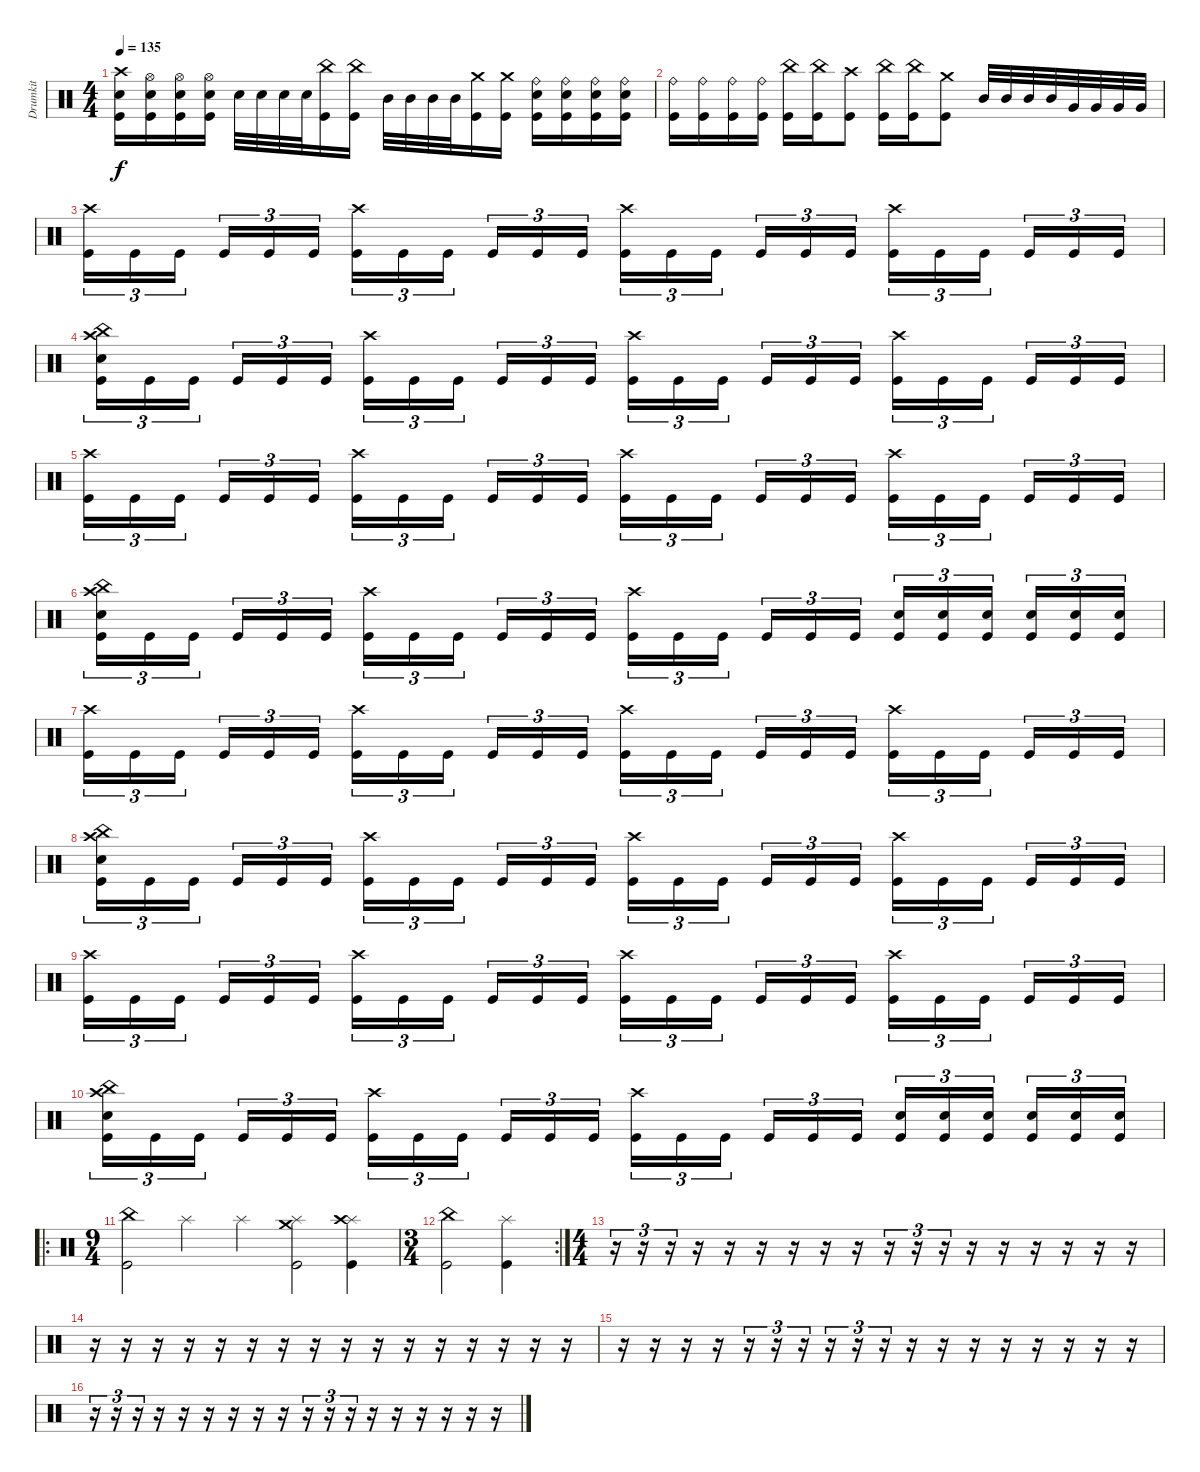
\track ("Drumkit" "Drumkit") {mute instrument percussion}
\staff {score}
\articulation defaults
\ts (4 4)
\tempo 135
\clef neutral
\ks c
("Kick (hit)" "Snare (hit) 2" "Crash high (hit)").16{dy f} ("Kick (hit)" "Snare (hit) 2" "Hi-Hat (open)").16 ("Kick (hit)" "Snare (hit) 2" "Hi-Hat (open)").16 ("Kick (hit)" "Snare (hit) 2" "Hi-Hat (open)").16 "Snare (hit) 2".32 "Snare (hit) 2".32 "Snare (hit) 2".32 "Snare (hit) 2".32 ("Kick (hit)" "China (hit)").16 ("Kick (hit)" "China (hit)").16 "Mid Tom (hit)".32 "Mid Tom (hit)".32 "Mid Tom (hit)".32 "Mid Tom (hit)".32 ("Kick (hit)" "Crash medium (hit)").16 ("Kick (hit)" "Crash medium (hit)").16 ("Kick (hit)" "Snare (hit) 2" "Ride (bell)").16 ("Kick (hit)" "Snare (hit) 2" "Ride (bell)").16 ("Kick (hit)" "Snare (hit) 2" "Ride (bell)").16 ("Kick (hit)" "Snare (hit) 2" "Ride (bell)").16 |
("Kick (hit)" "Ride (bell)").16 ("Kick (hit)" "Ride (bell)").16 ("Kick (hit)" "Ride (bell)").16 ("Kick (hit)" "Ride (bell)").16 ("Kick (hit)" "China (hit)").16 ("Kick (hit)" "China (hit)").16 ("Kick (hit)" "Crash high (hit)").8 ("Kick (hit)" "China (hit)").16 ("Kick (hit)" "China (hit)").16 ("Kick (hit)" "Crash medium (hit)").8 "Mid Tom (hit)".32 "Mid Tom (hit)".32 "Mid Tom (hit)".32 "Mid Tom (hit)".32 "Very Low Tom (hit)".32 "Very Low Tom (hit)".32 "Very Low Tom (hit)".32 "Very Low Tom (hit)".32 |
("Kick (hit)" "Crash high (hit)").16{tu (3 2)} "Kick (hit)".16{tu (3 2)} "Kick (hit)".16{tu (3 2) beam splitsecondary} "Kick (hit)".16{tu (3 2)} "Kick (hit)".16{tu (3 2)} "Kick (hit)".16{tu (3 2)} ("Kick (hit)" "Crash high (hit)").16{tu (3 2)} "Kick (hit)".16{tu (3 2)} "Kick (hit)".16{tu (3 2) beam splitsecondary} "Kick (hit)".16{tu (3 2)} "Kick (hit)".16{tu (3 2)} "Kick (hit)".16{tu (3 2)} ("Kick (hit)" "Crash high (hit)").16{tu (3 2)} "Kick (hit)".16{tu (3 2)} "Kick (hit)".16{tu (3 2) beam splitsecondary} "Kick (hit)".16{tu (3 2)} "Kick (hit)".16{tu (3 2)} "Kick (hit)".16{tu (3 2)} ("Kick (hit)" "Crash high (hit)").16{tu (3 2)} "Kick (hit)".16{tu (3 2)} "Kick (hit)".16{tu (3 2) beam splitsecondary} "Kick (hit)".16{tu (3 2)} "Kick (hit)".16{tu (3 2)} "Kick (hit)".16{tu (3 2)} |
("Kick (hit)" "Crash high (hit)" "Snare (hit) 2" "China (hit)").16{tu (3 2)} "Kick (hit)".16{tu (3 2)} "Kick (hit)".16{tu (3 2) beam splitsecondary} "Kick (hit)".16{tu (3 2)} "Kick (hit)".16{tu (3 2)} "Kick (hit)".16{tu (3 2)} ("Kick (hit)" "Crash high (hit)").16{tu (3 2)} "Kick (hit)".16{tu (3 2)} "Kick (hit)".16{tu (3 2) beam splitsecondary} "Kick (hit)".16{tu (3 2)} "Kick (hit)".16{tu (3 2)} "Kick (hit)".16{tu (3 2)} ("Kick (hit)" "Crash high (hit)").16{tu (3 2)} "Kick (hit)".16{tu (3 2)} "Kick (hit)".16{tu (3 2) beam splitsecondary} "Kick (hit)".16{tu (3 2)} "Kick (hit)".16{tu (3 2)} "Kick (hit)".16{tu (3 2)} ("Kick (hit)" "Crash high (hit)").16{tu (3 2)} "Kick (hit)".16{tu (3 2)} "Kick (hit)".16{tu (3 2) beam splitsecondary} "Kick (hit)".16{tu (3 2)} "Kick (hit)".16{tu (3 2)} "Kick (hit)".16{tu (3 2)} |
("Kick (hit)" "Crash high (hit)").16{tu (3 2)} "Kick (hit)".16{tu (3 2)} "Kick (hit)".16{tu (3 2) beam splitsecondary} "Kick (hit)".16{tu (3 2)} "Kick (hit)".16{tu (3 2)} "Kick (hit)".16{tu (3 2)} ("Kick (hit)" "Crash high (hit)").16{tu (3 2)} "Kick (hit)".16{tu (3 2)} "Kick (hit)".16{tu (3 2) beam splitsecondary} "Kick (hit)".16{tu (3 2)} "Kick (hit)".16{tu (3 2)} "Kick (hit)".16{tu (3 2)} ("Kick (hit)" "Crash high (hit)").16{tu (3 2)} "Kick (hit)".16{tu (3 2)} "Kick (hit)".16{tu (3 2) beam splitsecondary} "Kick (hit)".16{tu (3 2)} "Kick (hit)".16{tu (3 2)} "Kick (hit)".16{tu (3 2)} ("Kick (hit)" "Crash high (hit)").16{tu (3 2)} "Kick (hit)".16{tu (3 2)} "Kick (hit)".16{tu (3 2) beam splitsecondary} "Kick (hit)".16{tu (3 2)} "Kick (hit)".16{tu (3 2)} "Kick (hit)".16{tu (3 2)} |
("Kick (hit)" "Crash high (hit)" "Snare (hit) 2" "China (hit)").16{tu (3 2)} "Kick (hit)".16{tu (3 2)} "Kick (hit)".16{tu (3 2) beam splitsecondary} "Kick (hit)".16{tu (3 2)} "Kick (hit)".16{tu (3 2)} "Kick (hit)".16{tu (3 2)} ("Kick (hit)" "Crash high (hit)").16{tu (3 2)} "Kick (hit)".16{tu (3 2)} "Kick (hit)".16{tu (3 2) beam splitsecondary} "Kick (hit)".16{tu (3 2)} "Kick (hit)".16{tu (3 2)} "Kick (hit)".16{tu (3 2)} ("Kick (hit)" "Crash high (hit)").16{tu (3 2)} "Kick (hit)".16{tu (3 2)} "Kick (hit)".16{tu (3 2) beam splitsecondary} "Kick (hit)".16{tu (3 2)} "Kick (hit)".16{tu (3 2)} "Kick (hit)".16{tu (3 2)} ("Kick (hit)" "Snare (hit) 2").16{tu (3 2)} ("Kick (hit)" "Snare (hit) 2").16{tu (3 2)} ("Kick (hit)" "Snare (hit) 2").16{tu (3 2) beam splitsecondary} ("Kick (hit)" "Snare (hit) 2").16{tu (3 2)} ("Kick (hit)" "Snare (hit) 2").16{tu (3 2)} ("Kick (hit)" "Snare (hit) 2").16{tu (3 2)} |
("Kick (hit)" "Crash high (hit)").16{tu (3 2)} "Kick (hit)".16{tu (3 2)} "Kick (hit)".16{tu (3 2) beam splitsecondary} "Kick (hit)".16{tu (3 2)} "Kick (hit)".16{tu (3 2)} "Kick (hit)".16{tu (3 2)} ("Kick (hit)" "Crash high (hit)").16{tu (3 2)} "Kick (hit)".16{tu (3 2)} "Kick (hit)".16{tu (3 2) beam splitsecondary} "Kick (hit)".16{tu (3 2)} "Kick (hit)".16{tu (3 2)} "Kick (hit)".16{tu (3 2)} ("Kick (hit)" "Crash high (hit)").16{tu (3 2)} "Kick (hit)".16{tu (3 2)} "Kick (hit)".16{tu (3 2) beam splitsecondary} "Kick (hit)".16{tu (3 2)} "Kick (hit)".16{tu (3 2)} "Kick (hit)".16{tu (3 2)} ("Kick (hit)" "Crash high (hit)").16{tu (3 2)} "Kick (hit)".16{tu (3 2)} "Kick (hit)".16{tu (3 2) beam splitsecondary} "Kick (hit)".16{tu (3 2)} "Kick (hit)".16{tu (3 2)} "Kick (hit)".16{tu (3 2)} |
("Kick (hit)" "Crash high (hit)" "Snare (hit) 2" "China (hit)").16{tu (3 2)} "Kick (hit)".16{tu (3 2)} "Kick (hit)".16{tu (3 2) beam splitsecondary} "Kick (hit)".16{tu (3 2)} "Kick (hit)".16{tu (3 2)} "Kick (hit)".16{tu (3 2)} ("Kick (hit)" "Crash high (hit)").16{tu (3 2)} "Kick (hit)".16{tu (3 2)} "Kick (hit)".16{tu (3 2) beam splitsecondary} "Kick (hit)".16{tu (3 2)} "Kick (hit)".16{tu (3 2)} "Kick (hit)".16{tu (3 2)} ("Kick (hit)" "Crash high (hit)").16{tu (3 2)} "Kick (hit)".16{tu (3 2)} "Kick (hit)".16{tu (3 2) beam splitsecondary} "Kick (hit)".16{tu (3 2)} "Kick (hit)".16{tu (3 2)} "Kick (hit)".16{tu (3 2)} ("Kick (hit)" "Crash high (hit)").16{tu (3 2)} "Kick (hit)".16{tu (3 2)} "Kick (hit)".16{tu (3 2) beam splitsecondary} "Kick (hit)".16{tu (3 2)} "Kick (hit)".16{tu (3 2)} "Kick (hit)".16{tu (3 2)} |
("Kick (hit)" "Crash high (hit)").16{tu (3 2)} "Kick (hit)".16{tu (3 2)} "Kick (hit)".16{tu (3 2) beam splitsecondary} "Kick (hit)".16{tu (3 2)} "Kick (hit)".16{tu (3 2)} "Kick (hit)".16{tu (3 2)} ("Kick (hit)" "Crash high (hit)").16{tu (3 2)} "Kick (hit)".16{tu (3 2)} "Kick (hit)".16{tu (3 2) beam splitsecondary} "Kick (hit)".16{tu (3 2)} "Kick (hit)".16{tu (3 2)} "Kick (hit)".16{tu (3 2)} ("Kick (hit)" "Crash high (hit)").16{tu (3 2)} "Kick (hit)".16{tu (3 2)} "Kick (hit)".16{tu (3 2) beam splitsecondary} "Kick (hit)".16{tu (3 2)} "Kick (hit)".16{tu (3 2)} "Kick (hit)".16{tu (3 2)} ("Kick (hit)" "Crash high (hit)").16{tu (3 2)} "Kick (hit)".16{tu (3 2)} "Kick (hit)".16{tu (3 2) beam splitsecondary} "Kick (hit)".16{tu (3 2)} "Kick (hit)".16{tu (3 2)} "Kick (hit)".16{tu (3 2)} |
("Kick (hit)" "Crash high (hit)" "Snare (hit) 2" "China (hit)").16{tu (3 2)} "Kick (hit)".16{tu (3 2)} "Kick (hit)".16{tu (3 2) beam splitsecondary} "Kick (hit)".16{tu (3 2)} "Kick (hit)".16{tu (3 2)} "Kick (hit)".16{tu (3 2)} ("Kick (hit)" "Crash high (hit)").16{tu (3 2)} "Kick (hit)".16{tu (3 2)} "Kick (hit)".16{tu (3 2) beam splitsecondary} "Kick (hit)".16{tu (3 2)} "Kick (hit)".16{tu (3 2)} "Kick (hit)".16{tu (3 2)} ("Kick (hit)" "Crash high (hit)").16{tu (3 2)} "Kick (hit)".16{tu (3 2)} "Kick (hit)".16{tu (3 2) beam splitsecondary} "Kick (hit)".16{tu (3 2)} "Kick (hit)".16{tu (3 2)} "Kick (hit)".16{tu (3 2)} ("Kick (hit)" "Snare (hit) 2").16{tu (3 2)} ("Kick (hit)" "Snare (hit) 2").16{tu (3 2)} ("Kick (hit)" "Snare (hit) 2").16{tu (3 2) beam splitsecondary} ("Kick (hit)" "Snare (hit) 2").16{tu (3 2)} ("Kick (hit)" "Snare (hit) 2").16{tu (3 2)} ("Kick (hit)" "Snare (hit) 2").16{tu (3 2)} |
\ro
\ts (9 4)
("China (hit)" "Kick (hit)").2 "Splash (hit)".2 "Splash (hit)".2 ("Kick (hit)" "Splash (hit)" "Crash medium (hit)").2 ("Kick (hit)" "Splash (hit)" "Crash high (hit)").4 |
\rc 2
\ts (3 4)
("Kick (hit)" "China (hit)").2 ("Kick (hit)" "Splash (hit)").4 |
\ts (4 4)
r.16{tu (3 2)} r.16{tu (3 2)} r.16{tu (3 2)} r.16 r.16 r.16 r.16 r.16 r.16 r.16{tu (3 2)} r.16{tu (3 2)} r.16{tu (3 2)} r.16 r.16 r.16 r.16 r.16 r.16 |
r.16 r.16 r.16 r.16 r.16 r.16 r.16 r.16 r.16 r.16 r.16 r.16 r.16 r.16 r.16 r.16 |
r.16 r.16 r.16 r.16 r.16{tu (3 2)} r.16{tu (3 2)} r.16{tu (3 2)} r.16{tu (3 2)} r.16{tu (3 2)} r.16{tu (3 2)} r.16 r.16 r.16 r.16 r.16 r.16 r.16 r.16 |
r.16{tu (3 2)} r.16{tu (3 2)} r.16{tu (3 2)} r.16 r.16 r.16 r.16 r.16 r.16 r.16{tu (3 2)} r.16{tu (3 2)} r.16{tu (3 2)} r.16 r.16 r.16 r.16 r.16 r.16
